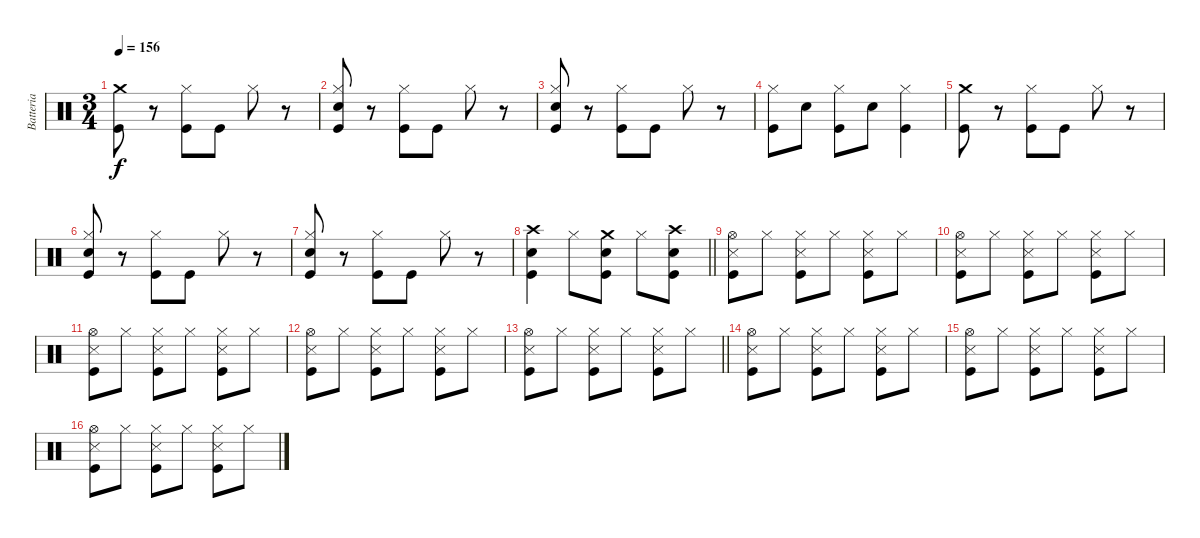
\track ("Batteria" "Batteria") {instrument percussion}
\staff {score}
\articulation defaults
\ts (3 4)
\tempo 156
\clef neutral
\ks c
("Crash medium (hit)" "Kick (hit)").8{dy f} r.8 ("Hi-Hat (closed)" "Kick (hit)").8 "Kick (hit)".8 "Hi-Hat (closed)".8 r.8 |
("Hi-Hat (closed)" "Electric Snare (hit)" "Kick (hit)").8 r.8 ("Hi-Hat (closed)" "Kick (hit)").8 "Kick (hit)".8 "Hi-Hat (closed)".8 r.8 |
("Hi-Hat (closed)" "Electric Snare (hit)" "Kick (hit)").8 r.8 ("Hi-Hat (closed)" "Kick (hit)").8 "Kick (hit)".8 "Hi-Hat (closed)".8 r.8 |
("Hi-Hat (closed)" "Kick (hit)").8 "Electric Snare (hit)".8 ("Hi-Hat (closed)" "Kick (hit)").8 "Electric Snare (hit)".8 ("Hi-Hat (closed)" "Kick (hit)").4 |
("Crash medium (hit)" "Kick (hit)").8 r.8 ("Hi-Hat (closed)" "Kick (hit)").8 "Kick (hit)".8 "Hi-Hat (closed)".8 r.8 |
("Hi-Hat (closed)" "Electric Snare (hit)" "Kick (hit)").8 r.8 ("Hi-Hat (closed)" "Kick (hit)").8 "Kick (hit)".8 "Hi-Hat (closed)".8 r.8 |
("Hi-Hat (closed)" "Electric Snare (hit)" "Kick (hit)").8 r.8 ("Hi-Hat (closed)" "Kick (hit)").8 "Kick (hit)".8 "Hi-Hat (closed)".8 r.8 |
\barLineRight lightlight
("Crash high (hit)" "Electric Snare (hit)" "Kick (hit)").4 "Hi-Hat (closed)".8 ("Crash medium (hit)" "Electric Snare (hit)" "Kick (hit)").8 "Hi-Hat (closed)".8 ("Crash high (hit)" "Electric Snare (hit)" "Kick (hit)").8 |
\section ("" "")
("Hi-Hat (open)" "Kick (hit)" "Snare (side stick) 3").8 "Hi-Hat (closed)".8 ("Hi-Hat (closed)" "Kick (hit)" "Snare (side stick) 3").8 "Hi-Hat (closed)".8 ("Hi-Hat (closed)" "Kick (hit)" "Snare (side stick) 3").8 "Hi-Hat (closed)".8 |
("Hi-Hat (open)" "Kick (hit)" "Snare (side stick) 3").8 "Hi-Hat (closed)".8 ("Hi-Hat (closed)" "Kick (hit)" "Snare (side stick) 3").8 "Hi-Hat (closed)".8 ("Hi-Hat (closed)" "Kick (hit)" "Snare (side stick) 3").8 "Hi-Hat (closed)".8 |
("Hi-Hat (open)" "Kick (hit)" "Snare (side stick) 3").8 "Hi-Hat (closed)".8 ("Hi-Hat (closed)" "Kick (hit)" "Snare (side stick) 3").8 "Hi-Hat (closed)".8 ("Hi-Hat (closed)" "Kick (hit)" "Snare (side stick) 3").8 "Hi-Hat (closed)".8 |
("Hi-Hat (open)" "Kick (hit)" "Snare (side stick) 3").8 "Hi-Hat (closed)".8 ("Hi-Hat (closed)" "Kick (hit)" "Snare (side stick) 3").8 "Hi-Hat (closed)".8 ("Hi-Hat (closed)" "Kick (hit)" "Snare (side stick) 3").8 "Hi-Hat (closed)".8 |
\barLineRight lightlight
("Hi-Hat (open)" "Kick (hit)" "Snare (side stick) 3").8 "Hi-Hat (closed)".8 ("Hi-Hat (closed)" "Kick (hit)" "Snare (side stick) 3").8 "Hi-Hat (closed)".8 ("Hi-Hat (closed)" "Kick (hit)" "Snare (side stick) 3").8 "Hi-Hat (closed)".8 |
("Hi-Hat (open)" "Kick (hit)" "Snare (side stick) 3").8 "Hi-Hat (closed)".8 ("Hi-Hat (closed)" "Kick (hit)" "Snare (side stick) 3").8 "Hi-Hat (closed)".8 ("Hi-Hat (closed)" "Kick (hit)" "Snare (side stick) 3").8 "Hi-Hat (closed)".8 |
("Hi-Hat (open)" "Kick (hit)" "Snare (side stick) 3").8 "Hi-Hat (closed)".8 ("Hi-Hat (closed)" "Kick (hit)" "Snare (side stick) 3").8 "Hi-Hat (closed)".8 ("Hi-Hat (closed)" "Kick (hit)" "Snare (side stick) 3").8 "Hi-Hat (closed)".8 |
("Hi-Hat (open)" "Kick (hit)" "Snare (side stick) 3").8 "Hi-Hat (closed)".8 ("Hi-Hat (closed)" "Kick (hit)" "Snare (side stick) 3").8 "Hi-Hat (closed)".8 ("Hi-Hat (closed)" "Kick (hit)" "Snare (side stick) 3").8 "Hi-Hat (closed)".8
